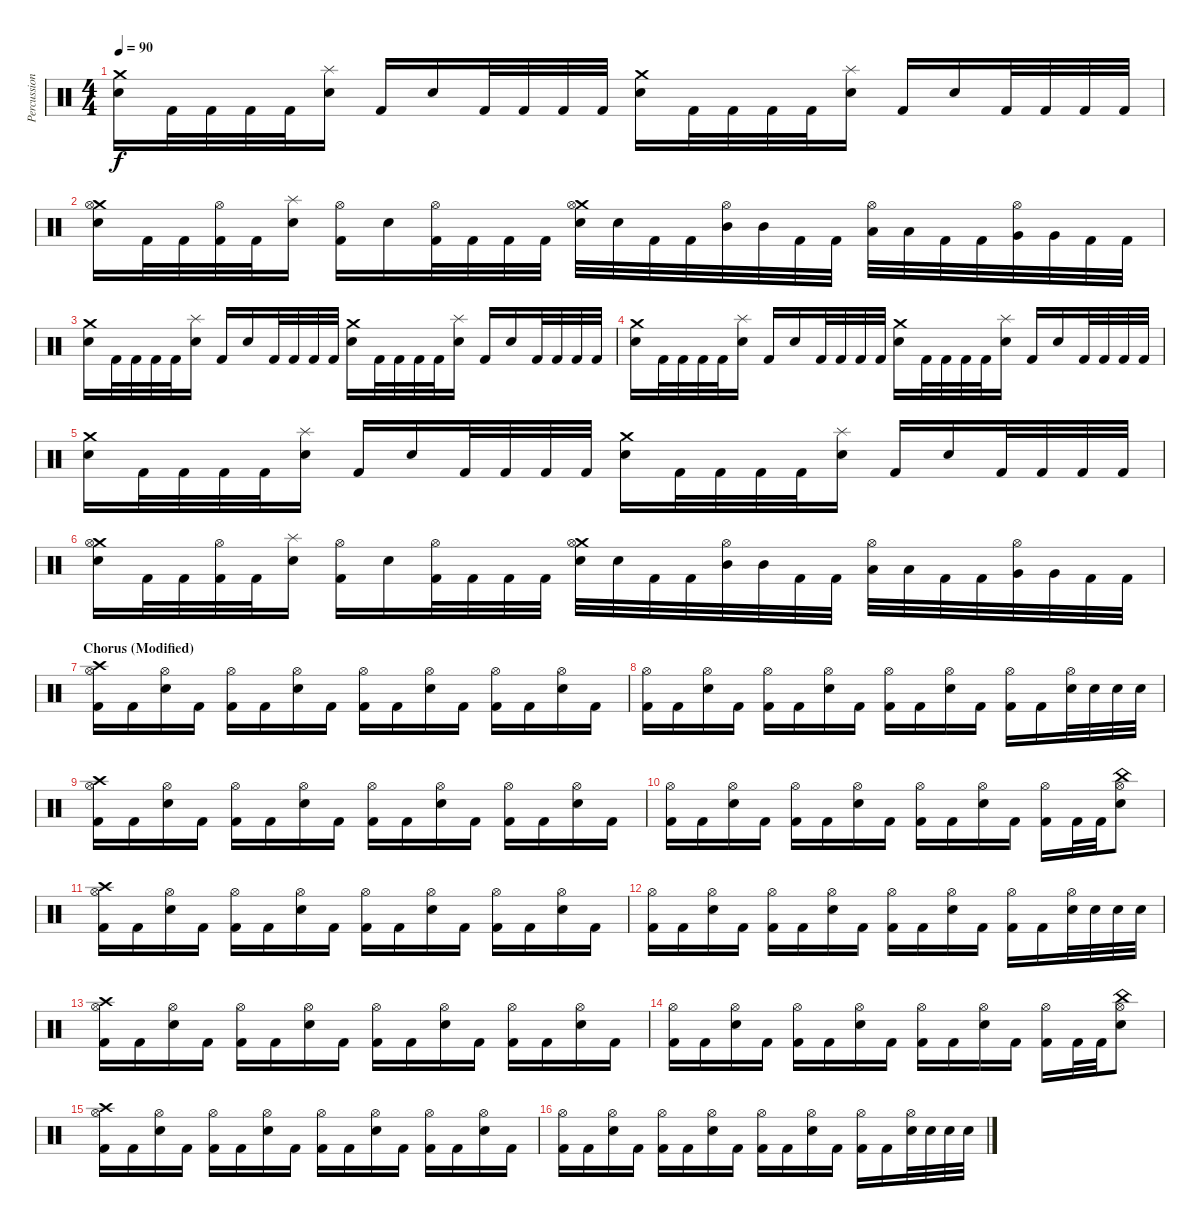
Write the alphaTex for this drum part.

\track ("Percussions" "Percussion") {instrument percussion}
\staff {score}
\articulation defaults
\ts (4 4)
\tempo 90
\clef neutral
\ks c
("Crash medium (hit)" "Electric Snare (hit)").16{dy f} "Kick (hit) 2".32 "Kick (hit) 2".32 "Kick (hit) 2".32 "Kick (hit) 2".32 ("Splash (hit)" "Electric Snare (hit)").16 "Kick (hit) 2".16 "Electric Snare (hit)".16 "Kick (hit) 2".32 "Kick (hit) 2".32 "Kick (hit) 2".32 "Kick (hit) 2".32 ("Crash medium (hit)" "Electric Snare (hit)").16 "Kick (hit) 2".32 "Kick (hit) 2".32 "Kick (hit) 2".32 "Kick (hit) 2".32 ("Splash (hit)" "Electric Snare (hit)").16 "Kick (hit) 2".16 "Electric Snare (hit)".16 "Kick (hit) 2".32 "Kick (hit) 2".32 "Kick (hit) 2".32 "Kick (hit) 2".32 |
("Crash medium (hit)" "Hi-Hat (open)" "Electric Snare (hit)").16 "Kick (hit) 2".32 "Kick (hit) 2".32 ("Hi-Hat (open)" "Kick (hit) 2").32 "Kick (hit) 2".32 ("Splash (hit)" "Electric Snare (hit)").16 ("Hi-Hat (open)" "Kick (hit) 2").16 "Electric Snare (hit)".16 ("Hi-Hat (open)" "Kick (hit) 2").32 "Kick (hit) 2".32 "Kick (hit) 2".32 "Kick (hit) 2".32 ("Crash medium (hit)" "Hi-Hat (open)" "Electric Snare (hit)").32 "Electric Snare (hit)".32 "Kick (hit) 2".32 "Kick (hit) 2".32 ("Hi-Hat (open)" "Mid Tom (hit)").32 "Mid Tom (hit)".32 "Kick (hit) 2".32 "Kick (hit) 2".32 ("Hi-Hat (open)" "Low Tom (hit)").32 "Low Tom (hit)".32 "Kick (hit) 2".32 "Kick (hit) 2".32 ("Hi-Hat (open)" "Very Low Tom (hit)").32 "Very Low Tom (hit)".32 "Kick (hit) 2".32 "Kick (hit) 2".32 |
("Crash medium (hit)" "Electric Snare (hit)").16 "Kick (hit) 2".32 "Kick (hit) 2".32 "Kick (hit) 2".32 "Kick (hit) 2".32 ("Splash (hit)" "Electric Snare (hit)").16 "Kick (hit) 2".16 "Electric Snare (hit)".16 "Kick (hit) 2".32 "Kick (hit) 2".32 "Kick (hit) 2".32 "Kick (hit) 2".32 ("Crash medium (hit)" "Electric Snare (hit)").16 "Kick (hit) 2".32 "Kick (hit) 2".32 "Kick (hit) 2".32 "Kick (hit) 2".32 ("Splash (hit)" "Electric Snare (hit)").16 "Kick (hit) 2".16 "Electric Snare (hit)".16 "Kick (hit) 2".32 "Kick (hit) 2".32 "Kick (hit) 2".32 "Kick (hit) 2".32 |
("Crash medium (hit)" "Electric Snare (hit)").16 "Kick (hit) 2".32 "Kick (hit) 2".32 "Kick (hit) 2".32 "Kick (hit) 2".32 ("Splash (hit)" "Electric Snare (hit)").16 "Kick (hit) 2".16 "Electric Snare (hit)".16 "Kick (hit) 2".32 "Kick (hit) 2".32 "Kick (hit) 2".32 "Kick (hit) 2".32 ("Crash medium (hit)" "Electric Snare (hit)").16 "Kick (hit) 2".32 "Kick (hit) 2".32 "Kick (hit) 2".32 "Kick (hit) 2".32 ("Splash (hit)" "Electric Snare (hit)").16 "Kick (hit) 2".16 "Electric Snare (hit)".16 "Kick (hit) 2".32 "Kick (hit) 2".32 "Kick (hit) 2".32 "Kick (hit) 2".32 |
("Crash medium (hit)" "Electric Snare (hit)").16 "Kick (hit) 2".32 "Kick (hit) 2".32 "Kick (hit) 2".32 "Kick (hit) 2".32 ("Splash (hit)" "Electric Snare (hit)").16 "Kick (hit) 2".16 "Electric Snare (hit)".16 "Kick (hit) 2".32 "Kick (hit) 2".32 "Kick (hit) 2".32 "Kick (hit) 2".32 ("Crash medium (hit)" "Electric Snare (hit)").16 "Kick (hit) 2".32 "Kick (hit) 2".32 "Kick (hit) 2".32 "Kick (hit) 2".32 ("Splash (hit)" "Electric Snare (hit)").16 "Kick (hit) 2".16 "Electric Snare (hit)".16 "Kick (hit) 2".32 "Kick (hit) 2".32 "Kick (hit) 2".32 "Kick (hit) 2".32 |
("Crash medium (hit)" "Hi-Hat (open)" "Electric Snare (hit)").16 "Kick (hit) 2".32 "Kick (hit) 2".32 ("Hi-Hat (open)" "Kick (hit) 2").32 "Kick (hit) 2".32 ("Splash (hit)" "Electric Snare (hit)").16 ("Hi-Hat (open)" "Kick (hit) 2").16 "Electric Snare (hit)".16 ("Hi-Hat (open)" "Kick (hit) 2").32 "Kick (hit) 2".32 "Kick (hit) 2".32 "Kick (hit) 2".32 ("Crash medium (hit)" "Hi-Hat (open)" "Electric Snare (hit)").32 "Electric Snare (hit)".32 "Kick (hit) 2".32 "Kick (hit) 2".32 ("Hi-Hat (open)" "Mid Tom (hit)").32 "Mid Tom (hit)".32 "Kick (hit) 2".32 "Kick (hit) 2".32 ("Hi-Hat (open)" "Low Tom (hit)").32 "Low Tom (hit)".32 "Kick (hit) 2".32 "Kick (hit) 2".32 ("Hi-Hat (open)" "Very Low Tom (hit)").32 "Very Low Tom (hit)".32 "Kick (hit) 2".32 "Kick (hit) 2".32 |
\section ("" "Chorus (Modified)")
("Crash high (hit)" "Hi-Hat (open)" "Kick (hit) 2").16 "Kick (hit) 2".16 ("Hi-Hat (open)" "Electric Snare (hit)").16 "Kick (hit) 2".16 ("Hi-Hat (open)" "Kick (hit) 2").16 "Kick (hit) 2".16 ("Hi-Hat (open)" "Electric Snare (hit)").16 "Kick (hit) 2".16 ("Hi-Hat (open)" "Kick (hit) 2").16 "Kick (hit) 2".16 ("Hi-Hat (open)" "Electric Snare (hit)").16 "Kick (hit) 2".16 ("Hi-Hat (open)" "Kick (hit) 2").16 "Kick (hit) 2".16 ("Hi-Hat (open)" "Electric Snare (hit)").16 "Kick (hit) 2".16 |
("Hi-Hat (open)" "Kick (hit) 2").16 "Kick (hit) 2".16 ("Hi-Hat (open)" "Electric Snare (hit)").16 "Kick (hit) 2".16 ("Hi-Hat (open)" "Kick (hit) 2").16 "Kick (hit) 2".16 ("Hi-Hat (open)" "Electric Snare (hit)").16 "Kick (hit) 2".16 ("Hi-Hat (open)" "Kick (hit) 2").16 "Kick (hit) 2".16 ("Hi-Hat (open)" "Electric Snare (hit)").16 "Kick (hit) 2".16 ("Hi-Hat (open)" "Kick (hit) 2").16 "Kick (hit) 2".16 ("Hi-Hat (open)" "Electric Snare (hit)").32 "Electric Snare (hit)".32 "Electric Snare (hit)".32 "Electric Snare (hit)".32 |
("Crash high (hit)" "Hi-Hat (open)" "Kick (hit) 2").16 "Kick (hit) 2".16 ("Hi-Hat (open)" "Electric Snare (hit)").16 "Kick (hit) 2".16 ("Hi-Hat (open)" "Kick (hit) 2").16 "Kick (hit) 2".16 ("Hi-Hat (open)" "Electric Snare (hit)").16 "Kick (hit) 2".16 ("Hi-Hat (open)" "Kick (hit) 2").16 "Kick (hit) 2".16 ("Hi-Hat (open)" "Electric Snare (hit)").16 "Kick (hit) 2".16 ("Hi-Hat (open)" "Kick (hit) 2").16 "Kick (hit) 2".16 ("Hi-Hat (open)" "Electric Snare (hit)").16 "Kick (hit) 2".16 |
("Hi-Hat (open)" "Kick (hit) 2").16 "Kick (hit) 2".16 ("Hi-Hat (open)" "Electric Snare (hit)").16 "Kick (hit) 2".16 ("Hi-Hat (open)" "Kick (hit) 2").16 "Kick (hit) 2".16 ("Hi-Hat (open)" "Electric Snare (hit)").16 "Kick (hit) 2".16 ("Hi-Hat (open)" "Kick (hit) 2").16 "Kick (hit) 2".16 ("Hi-Hat (open)" "Electric Snare (hit)").16 "Kick (hit) 2".16 ("Hi-Hat (open)" "Kick (hit) 2").16 "Kick (hit) 2".32 "Kick (hit) 2".32 ("China (hit)" "Hi-Hat (open)" "Electric Snare (hit)").8 |
("Crash high (hit)" "Hi-Hat (open)" "Kick (hit) 2").16 "Kick (hit) 2".16 ("Hi-Hat (open)" "Electric Snare (hit)").16 "Kick (hit) 2".16 ("Hi-Hat (open)" "Kick (hit) 2").16 "Kick (hit) 2".16 ("Hi-Hat (open)" "Electric Snare (hit)").16 "Kick (hit) 2".16 ("Hi-Hat (open)" "Kick (hit) 2").16 "Kick (hit) 2".16 ("Hi-Hat (open)" "Electric Snare (hit)").16 "Kick (hit) 2".16 ("Hi-Hat (open)" "Kick (hit) 2").16 "Kick (hit) 2".16 ("Hi-Hat (open)" "Electric Snare (hit)").16 "Kick (hit) 2".16 |
("Hi-Hat (open)" "Kick (hit) 2").16 "Kick (hit) 2".16 ("Hi-Hat (open)" "Electric Snare (hit)").16 "Kick (hit) 2".16 ("Hi-Hat (open)" "Kick (hit) 2").16 "Kick (hit) 2".16 ("Hi-Hat (open)" "Electric Snare (hit)").16 "Kick (hit) 2".16 ("Hi-Hat (open)" "Kick (hit) 2").16 "Kick (hit) 2".16 ("Hi-Hat (open)" "Electric Snare (hit)").16 "Kick (hit) 2".16 ("Hi-Hat (open)" "Kick (hit) 2").16 "Kick (hit) 2".16 ("Hi-Hat (open)" "Electric Snare (hit)").32 "Electric Snare (hit)".32 "Electric Snare (hit)".32 "Electric Snare (hit)".32 |
("Crash high (hit)" "Hi-Hat (open)" "Kick (hit) 2").16 "Kick (hit) 2".16 ("Hi-Hat (open)" "Electric Snare (hit)").16 "Kick (hit) 2".16 ("Hi-Hat (open)" "Kick (hit) 2").16 "Kick (hit) 2".16 ("Hi-Hat (open)" "Electric Snare (hit)").16 "Kick (hit) 2".16 ("Hi-Hat (open)" "Kick (hit) 2").16 "Kick (hit) 2".16 ("Hi-Hat (open)" "Electric Snare (hit)").16 "Kick (hit) 2".16 ("Hi-Hat (open)" "Kick (hit) 2").16 "Kick (hit) 2".16 ("Hi-Hat (open)" "Electric Snare (hit)").16 "Kick (hit) 2".16 |
("Hi-Hat (open)" "Kick (hit) 2").16 "Kick (hit) 2".16 ("Hi-Hat (open)" "Electric Snare (hit)").16 "Kick (hit) 2".16 ("Hi-Hat (open)" "Kick (hit) 2").16 "Kick (hit) 2".16 ("Hi-Hat (open)" "Electric Snare (hit)").16 "Kick (hit) 2".16 ("Hi-Hat (open)" "Kick (hit) 2").16 "Kick (hit) 2".16 ("Hi-Hat (open)" "Electric Snare (hit)").16 "Kick (hit) 2".16 ("Hi-Hat (open)" "Kick (hit) 2").16 "Kick (hit) 2".32 "Kick (hit) 2".32 ("China (hit)" "Hi-Hat (open)" "Electric Snare (hit)").8 |
("Crash high (hit)" "Hi-Hat (open)" "Kick (hit) 2").16 "Kick (hit) 2".16 ("Hi-Hat (open)" "Electric Snare (hit)").16 "Kick (hit) 2".16 ("Hi-Hat (open)" "Kick (hit) 2").16 "Kick (hit) 2".16 ("Hi-Hat (open)" "Electric Snare (hit)").16 "Kick (hit) 2".16 ("Hi-Hat (open)" "Kick (hit) 2").16 "Kick (hit) 2".16 ("Hi-Hat (open)" "Electric Snare (hit)").16 "Kick (hit) 2".16 ("Hi-Hat (open)" "Kick (hit) 2").16 "Kick (hit) 2".16 ("Hi-Hat (open)" "Electric Snare (hit)").16 "Kick (hit) 2".16 |
("Hi-Hat (open)" "Kick (hit) 2").16 "Kick (hit) 2".16 ("Hi-Hat (open)" "Electric Snare (hit)").16 "Kick (hit) 2".16 ("Hi-Hat (open)" "Kick (hit) 2").16 "Kick (hit) 2".16 ("Hi-Hat (open)" "Electric Snare (hit)").16 "Kick (hit) 2".16 ("Hi-Hat (open)" "Kick (hit) 2").16 "Kick (hit) 2".16 ("Hi-Hat (open)" "Electric Snare (hit)").16 "Kick (hit) 2".16 ("Hi-Hat (open)" "Kick (hit) 2").16 "Kick (hit) 2".16 ("Hi-Hat (open)" "Electric Snare (hit)").32 "Electric Snare (hit)".32 "Electric Snare (hit)".32 "Electric Snare (hit)".32
